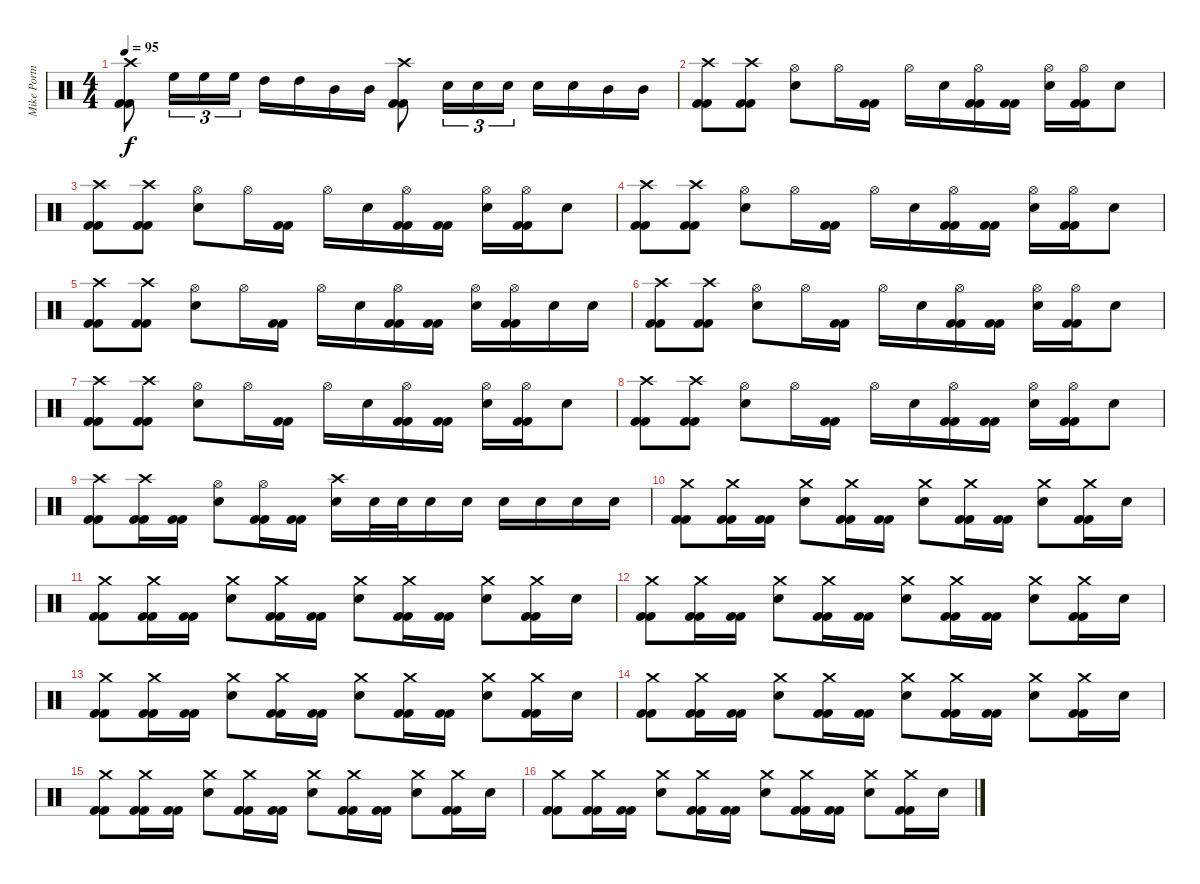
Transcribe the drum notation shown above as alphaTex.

\track ("Mike Portnoy" "Mike Portn") {instrument percussion}
\staff {score}
\articulation defaults
\ts (4 4)
\tempo 95
\clef neutral
\ks c
("Crash high (hit)" "Kick (hit) 2" "Kick (hit) 2").8{dy f} "High Floor Tom (hit)".16{tu (3 2)} "High Floor Tom (hit)".16{tu (3 2)} "High Floor Tom (hit)".16{tu (3 2)} "High Tom (hit)".16 "High Tom (hit)".16 "Mid Tom (hit)".16 "Mid Tom (hit)".16 ("Crash high (hit)" "Kick (hit) 2" "Kick (hit) 2").8 "Snare (hit) 2".16{tu (3 2)} "Snare (hit) 2".16{tu (3 2)} "Snare (hit) 2".16{tu (3 2)} "Snare (hit) 2".16 "Snare (hit) 2".16 "Mid Tom (hit)".16 "Mid Tom (hit)".16 |
("Crash high (hit)" "Kick (hit) 2" "Kick (hit) 2").8 ("Crash high (hit)" "Kick (hit) 2" "Kick (hit) 2").8 ("Hi-Hat (open)" "Snare (hit) 2").8 "Hi-Hat (open)".16 ("Kick (hit) 2" "Kick (hit) 2").16 "Hi-Hat (open)".16 "Snare (hit) 2".16 ("Hi-Hat (open)" "Kick (hit) 2" "Kick (hit) 2").16 ("Kick (hit) 2" "Kick (hit) 2").16 ("Hi-Hat (open)" "Snare (hit) 2").16 ("Hi-Hat (open)" "Kick (hit) 2" "Kick (hit) 2").16 "Snare (hit) 2".8 |
("Crash high (hit)" "Kick (hit) 2" "Kick (hit) 2").8 ("Crash high (hit)" "Kick (hit) 2" "Kick (hit) 2").8 ("Hi-Hat (open)" "Snare (hit) 2").8 "Hi-Hat (open)".16 ("Kick (hit) 2" "Kick (hit) 2").16 "Hi-Hat (open)".16 "Snare (hit) 2".16 ("Hi-Hat (open)" "Kick (hit) 2" "Kick (hit) 2").16 ("Kick (hit) 2" "Kick (hit) 2").16 ("Hi-Hat (open)" "Snare (hit) 2").16 ("Hi-Hat (open)" "Kick (hit) 2" "Kick (hit) 2").16 "Snare (hit) 2".8 |
("Crash high (hit)" "Kick (hit) 2" "Kick (hit) 2").8 ("Crash high (hit)" "Kick (hit) 2" "Kick (hit) 2").8 ("Hi-Hat (open)" "Snare (hit) 2").8 "Hi-Hat (open)".16 ("Kick (hit) 2" "Kick (hit) 2").16 "Hi-Hat (open)".16 "Snare (hit) 2".16 ("Hi-Hat (open)" "Kick (hit) 2" "Kick (hit) 2").16 ("Kick (hit) 2" "Kick (hit) 2").16 ("Hi-Hat (open)" "Snare (hit) 2").16 ("Hi-Hat (open)" "Kick (hit) 2" "Kick (hit) 2").16 "Snare (hit) 2".8 |
("Crash high (hit)" "Kick (hit) 2" "Kick (hit) 2").8 ("Crash high (hit)" "Kick (hit) 2" "Kick (hit) 2").8 ("Hi-Hat (open)" "Snare (hit) 2").8 "Hi-Hat (open)".16 ("Kick (hit) 2" "Kick (hit) 2").16 "Hi-Hat (open)".16 "Snare (hit) 2".16 ("Hi-Hat (open)" "Kick (hit) 2" "Kick (hit) 2").16 ("Kick (hit) 2" "Kick (hit) 2").16 ("Hi-Hat (open)" "Snare (hit) 2").16 ("Hi-Hat (open)" "Kick (hit) 2" "Kick (hit) 2").16 "Snare (hit) 2".16 "Snare (hit) 2".16 |
("Crash high (hit)" "Kick (hit) 2" "Kick (hit) 2").8 ("Crash high (hit)" "Kick (hit) 2" "Kick (hit) 2").8 ("Hi-Hat (open)" "Snare (hit) 2").8 "Hi-Hat (open)".16 ("Kick (hit) 2" "Kick (hit) 2").16 "Hi-Hat (open)".16 "Snare (hit) 2".16 ("Hi-Hat (open)" "Kick (hit) 2" "Kick (hit) 2").16 ("Kick (hit) 2" "Kick (hit) 2").16 ("Hi-Hat (open)" "Snare (hit) 2").16 ("Hi-Hat (open)" "Kick (hit) 2" "Kick (hit) 2").16 "Snare (hit) 2".8 |
("Crash high (hit)" "Kick (hit) 2" "Kick (hit) 2").8 ("Crash high (hit)" "Kick (hit) 2" "Kick (hit) 2").8 ("Hi-Hat (open)" "Snare (hit) 2").8 "Hi-Hat (open)".16 ("Kick (hit) 2" "Kick (hit) 2").16 "Hi-Hat (open)".16 "Snare (hit) 2".16 ("Hi-Hat (open)" "Kick (hit) 2" "Kick (hit) 2").16 ("Kick (hit) 2" "Kick (hit) 2").16 ("Hi-Hat (open)" "Snare (hit) 2").16 ("Hi-Hat (open)" "Kick (hit) 2" "Kick (hit) 2").16 "Snare (hit) 2".8 |
("Crash high (hit)" "Kick (hit) 2" "Kick (hit) 2").8 ("Crash high (hit)" "Kick (hit) 2" "Kick (hit) 2").8 ("Hi-Hat (open)" "Snare (hit) 2").8 "Hi-Hat (open)".16 ("Kick (hit) 2" "Kick (hit) 2").16 "Hi-Hat (open)".16 "Snare (hit) 2".16 ("Hi-Hat (open)" "Kick (hit) 2" "Kick (hit) 2").16 ("Kick (hit) 2" "Kick (hit) 2").16 ("Hi-Hat (open)" "Snare (hit) 2").16 ("Hi-Hat (open)" "Kick (hit) 2" "Kick (hit) 2").16 "Snare (hit) 2".8 |
("Crash high (hit)" "Kick (hit) 2" "Kick (hit) 2").8 ("Crash high (hit)" "Kick (hit) 2" "Kick (hit) 2").16 ("Kick (hit) 2" "Kick (hit) 2").16 ("Hi-Hat (open)" "Snare (hit) 2").8 ("Hi-Hat (open)" "Kick (hit) 2" "Kick (hit) 2").16 ("Kick (hit) 2" "Kick (hit) 2").16 ("Crash high (hit)" "Snare (hit) 2").16 "Snare (hit) 2".32 "Snare (hit) 2".32 "Snare (hit) 2".16 "Snare (hit) 2".16 "Snare (hit) 2".16 "Snare (hit) 2".16 "Snare (hit) 2".16 "Snare (hit) 2".16 |
("Crash medium (hit)" "Kick (hit) 2" "Kick (hit) 2").8 ("Crash medium (hit)" "Kick (hit) 2" "Kick (hit) 2").16 ("Kick (hit) 2" "Kick (hit) 2").16 ("Crash medium (hit)" "Snare (hit) 2").8 ("Crash medium (hit)" "Kick (hit) 2" "Kick (hit) 2").16 ("Kick (hit) 2" "Kick (hit) 2").16 ("Crash medium (hit)" "Snare (hit) 2").8 ("Crash medium (hit)" "Kick (hit) 2" "Kick (hit) 2").16 ("Kick (hit) 2" "Kick (hit) 2").16 ("Crash medium (hit)" "Snare (hit) 2").8 ("Crash medium (hit)" "Kick (hit) 2" "Kick (hit) 2").16 "Snare (hit) 2".16 |
("Crash medium (hit)" "Kick (hit) 2" "Kick (hit) 2").8 ("Crash medium (hit)" "Kick (hit) 2" "Kick (hit) 2").16 ("Kick (hit) 2" "Kick (hit) 2").16 ("Crash medium (hit)" "Snare (hit) 2").8 ("Crash medium (hit)" "Kick (hit) 2" "Kick (hit) 2").16 ("Kick (hit) 2" "Kick (hit) 2").16 ("Crash medium (hit)" "Snare (hit) 2").8 ("Crash medium (hit)" "Kick (hit) 2" "Kick (hit) 2").16 ("Kick (hit) 2" "Kick (hit) 2").16 ("Crash medium (hit)" "Snare (hit) 2").8 ("Crash medium (hit)" "Kick (hit) 2" "Kick (hit) 2").16 "Snare (hit) 2".16 |
("Crash medium (hit)" "Kick (hit) 2" "Kick (hit) 2").8 ("Crash medium (hit)" "Kick (hit) 2" "Kick (hit) 2").16 ("Kick (hit) 2" "Kick (hit) 2").16 ("Crash medium (hit)" "Snare (hit) 2").8 ("Crash medium (hit)" "Kick (hit) 2" "Kick (hit) 2").16 ("Kick (hit) 2" "Kick (hit) 2").16 ("Crash medium (hit)" "Snare (hit) 2").8 ("Crash medium (hit)" "Kick (hit) 2" "Kick (hit) 2").16 ("Kick (hit) 2" "Kick (hit) 2").16 ("Crash medium (hit)" "Snare (hit) 2").8 ("Crash medium (hit)" "Kick (hit) 2" "Kick (hit) 2").16 "Snare (hit) 2".16 |
("Crash medium (hit)" "Kick (hit) 2" "Kick (hit) 2").8 ("Crash medium (hit)" "Kick (hit) 2" "Kick (hit) 2").16 ("Kick (hit) 2" "Kick (hit) 2").16 ("Crash medium (hit)" "Snare (hit) 2").8 ("Crash medium (hit)" "Kick (hit) 2" "Kick (hit) 2").16 ("Kick (hit) 2" "Kick (hit) 2").16 ("Crash medium (hit)" "Snare (hit) 2").8 ("Crash medium (hit)" "Kick (hit) 2" "Kick (hit) 2").16 ("Kick (hit) 2" "Kick (hit) 2").16 ("Crash medium (hit)" "Snare (hit) 2").8 ("Crash medium (hit)" "Kick (hit) 2" "Kick (hit) 2").16 "Snare (hit) 2".16 |
("Crash medium (hit)" "Kick (hit) 2" "Kick (hit) 2").8 ("Crash medium (hit)" "Kick (hit) 2" "Kick (hit) 2").16 ("Kick (hit) 2" "Kick (hit) 2").16 ("Crash medium (hit)" "Snare (hit) 2").8 ("Crash medium (hit)" "Kick (hit) 2" "Kick (hit) 2").16 ("Kick (hit) 2" "Kick (hit) 2").16 ("Crash medium (hit)" "Snare (hit) 2").8 ("Crash medium (hit)" "Kick (hit) 2" "Kick (hit) 2").16 ("Kick (hit) 2" "Kick (hit) 2").16 ("Crash medium (hit)" "Snare (hit) 2").8 ("Crash medium (hit)" "Kick (hit) 2" "Kick (hit) 2").16 "Snare (hit) 2".16 |
("Crash medium (hit)" "Kick (hit) 2" "Kick (hit) 2").8 ("Crash medium (hit)" "Kick (hit) 2" "Kick (hit) 2").16 ("Kick (hit) 2" "Kick (hit) 2").16 ("Crash medium (hit)" "Snare (hit) 2").8 ("Crash medium (hit)" "Kick (hit) 2" "Kick (hit) 2").16 ("Kick (hit) 2" "Kick (hit) 2").16 ("Crash medium (hit)" "Snare (hit) 2").8 ("Crash medium (hit)" "Kick (hit) 2" "Kick (hit) 2").16 ("Kick (hit) 2" "Kick (hit) 2").16 ("Crash medium (hit)" "Snare (hit) 2").8 ("Crash medium (hit)" "Kick (hit) 2" "Kick (hit) 2").16 "Snare (hit) 2".16 |
("Crash medium (hit)" "Kick (hit) 2" "Kick (hit) 2").8 ("Crash medium (hit)" "Kick (hit) 2" "Kick (hit) 2").16 ("Kick (hit) 2" "Kick (hit) 2").16 ("Crash medium (hit)" "Snare (hit) 2").8 ("Crash medium (hit)" "Kick (hit) 2" "Kick (hit) 2").16 ("Kick (hit) 2" "Kick (hit) 2").16 ("Crash medium (hit)" "Snare (hit) 2").8 ("Crash medium (hit)" "Kick (hit) 2" "Kick (hit) 2").16 ("Kick (hit) 2" "Kick (hit) 2").16 ("Crash medium (hit)" "Snare (hit) 2").8 ("Crash medium (hit)" "Kick (hit) 2" "Kick (hit) 2").16 "Snare (hit) 2".16
